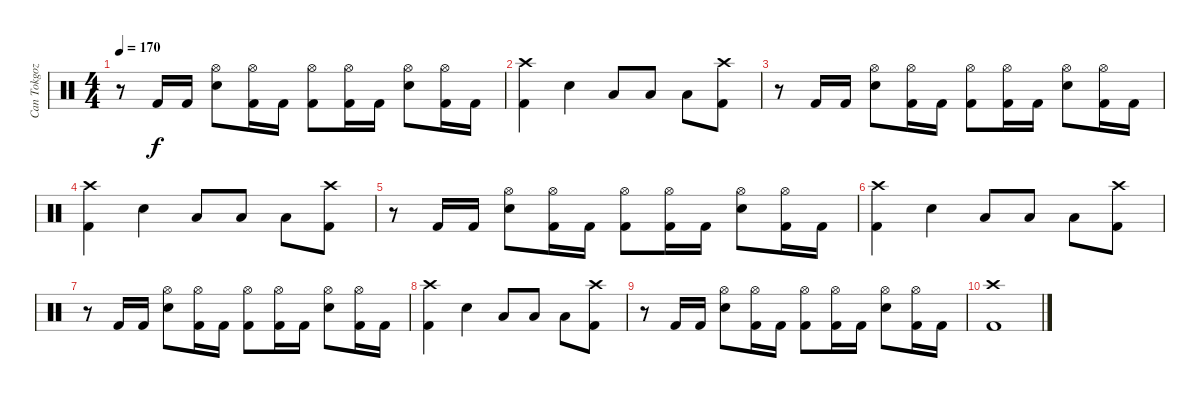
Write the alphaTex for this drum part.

\track ("Can Tokgoz" "Can Tokgoz") {instrument percussion}
\staff {score}
\articulation defaults
\ts (4 4)
\tempo 170
\clef neutral
\ks c
r.8{dy f} "Kick (hit) 2".16 "Kick (hit) 2".16 ("Hi-Hat (open)" "Snare (hit) 2").8 ("Hi-Hat (open)" "Kick (hit) 2").16 "Kick (hit) 2".16 ("Hi-Hat (open)" "Kick (hit) 2").8 ("Hi-Hat (open)" "Kick (hit) 2").16 "Kick (hit) 2".16 ("Hi-Hat (open)" "Snare (hit) 2").8 ("Hi-Hat (open)" "Kick (hit) 2").16 "Kick (hit) 2".16 |
("Crash high (hit)" "Kick (hit) 2").4 "Snare (hit) 2".4 "Low Tom (hit)".8 "Low Tom (hit)".8 "Low Tom (hit)".8 ("Crash high (hit)" "Kick (hit) 2").8 |
r.8 "Kick (hit) 2".16 "Kick (hit) 2".16 ("Hi-Hat (open)" "Snare (hit) 2").8 ("Hi-Hat (open)" "Kick (hit) 2").16 "Kick (hit) 2".16 ("Hi-Hat (open)" "Kick (hit) 2").8 ("Hi-Hat (open)" "Kick (hit) 2").16 "Kick (hit) 2".16 ("Hi-Hat (open)" "Snare (hit) 2").8 ("Hi-Hat (open)" "Kick (hit) 2").16 "Kick (hit) 2".16 |
("Crash high (hit)" "Kick (hit) 2").4 "Snare (hit) 2".4 "Low Tom (hit)".8 "Low Tom (hit)".8 "Low Tom (hit)".8 ("Crash high (hit)" "Kick (hit) 2").8 |
r.8 "Kick (hit) 2".16 "Kick (hit) 2".16 ("Hi-Hat (open)" "Snare (hit) 2").8 ("Hi-Hat (open)" "Kick (hit) 2").16 "Kick (hit) 2".16 ("Hi-Hat (open)" "Kick (hit) 2").8 ("Hi-Hat (open)" "Kick (hit) 2").16 "Kick (hit) 2".16 ("Hi-Hat (open)" "Snare (hit) 2").8 ("Hi-Hat (open)" "Kick (hit) 2").16 "Kick (hit) 2".16 |
("Crash high (hit)" "Kick (hit) 2").4 "Snare (hit) 2".4 "Low Tom (hit)".8 "Low Tom (hit)".8 "Low Tom (hit)".8 ("Crash high (hit)" "Kick (hit) 2").8 |
r.8 "Kick (hit) 2".16 "Kick (hit) 2".16 ("Hi-Hat (open)" "Snare (hit) 2").8 ("Hi-Hat (open)" "Kick (hit) 2").16 "Kick (hit) 2".16 ("Hi-Hat (open)" "Kick (hit) 2").8 ("Hi-Hat (open)" "Kick (hit) 2").16 "Kick (hit) 2".16 ("Hi-Hat (open)" "Snare (hit) 2").8 ("Hi-Hat (open)" "Kick (hit) 2").16 "Kick (hit) 2".16 |
("Crash high (hit)" "Kick (hit) 2").4 "Snare (hit) 2".4 "Low Tom (hit)".8 "Low Tom (hit)".8 "Low Tom (hit)".8 ("Crash high (hit)" "Kick (hit) 2").8 |
r.8 "Kick (hit) 2".16 "Kick (hit) 2".16 ("Hi-Hat (open)" "Snare (hit) 2").8 ("Hi-Hat (open)" "Kick (hit) 2").16 "Kick (hit) 2".16 ("Hi-Hat (open)" "Kick (hit) 2").8 ("Hi-Hat (open)" "Kick (hit) 2").16 "Kick (hit) 2".16 ("Hi-Hat (open)" "Snare (hit) 2").8 ("Hi-Hat (open)" "Kick (hit) 2").16 "Kick (hit) 2".16 |
("Crash high (hit)" "Kick (hit) 2").1
